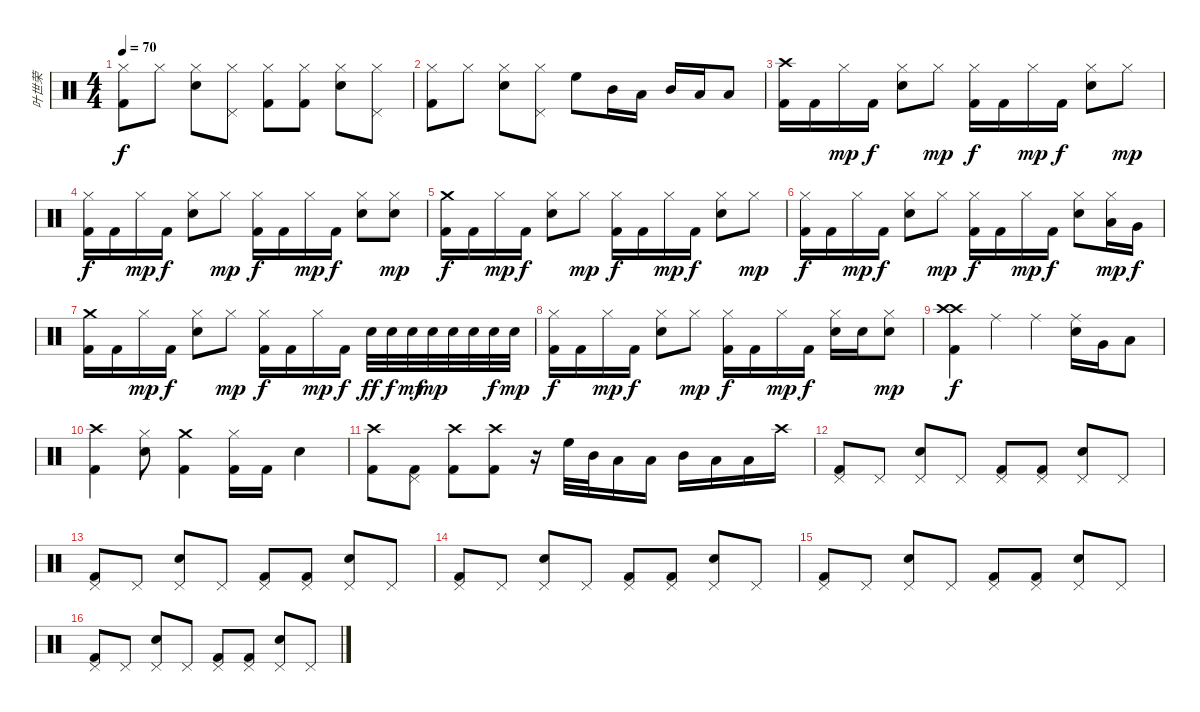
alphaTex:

\track ("叶世荣" "叶世荣") {instrument percussion}
\staff {score}
\articulation defaults
\ts (4 4)
\tempo 70
\clef neutral
\ks c
("Hi-Hat (closed)" "Kick (hit) 2").8{dy f} "Hi-Hat (closed)".8 ("Hi-Hat (closed)" "Snare (hit) 2").8 ("Hi-Hat (closed)" "Pedal Hi-Hat (hit)").8 ("Hi-Hat (closed)" "Kick (hit) 2").8 ("Hi-Hat (closed)" "Kick (hit) 2").8 ("Hi-Hat (closed)" "Snare (hit) 2").8 ("Hi-Hat (closed)" "Pedal Hi-Hat (hit)").8 |
("Hi-Hat (closed)" "Kick (hit) 2").8 "Hi-Hat (closed)".8 ("Hi-Hat (closed)" "Snare (hit) 2").8 ("Hi-Hat (closed)" "Pedal Hi-Hat (hit)").8 "High Floor Tom (hit)".8 "Mid Tom (hit)".16 "Low Tom (hit)".16 "Mid Tom (hit)".16 "Low Tom (hit)".16 "Low Floor Tom (hit)".8 |
("Crash high (hit)" "Kick (hit) 2").16 "Kick (hit) 2".16 "Hi-Hat (closed)".16{dy mp} "Kick (hit) 2".16{dy f} ("Hi-Hat (closed)" "Electric Snare (hit)").8 "Hi-Hat (closed)".8{dy mp} ("Hi-Hat (closed)" "Kick (hit) 2").16{dy f} "Kick (hit) 2".16 "Hi-Hat (closed)".16{dy mp} "Kick (hit) 2".16{dy f} ("Hi-Hat (closed)" "Electric Snare (hit)").8 "Hi-Hat (closed)".8{dy mp} |
("Hi-Hat (closed)" "Kick (hit) 2").16{dy f} "Kick (hit) 2".16 "Hi-Hat (closed)".16{dy mp} "Kick (hit) 2".16{dy f} ("Hi-Hat (closed)" "Electric Snare (hit)").8 "Hi-Hat (closed)".8{dy mp} ("Hi-Hat (closed)" "Kick (hit) 2").16{dy f} "Kick (hit) 2".16 "Hi-Hat (closed)".16{dy mp} "Kick (hit) 2".16{dy f} ("Hi-Hat (closed)" "Electric Snare (hit)").8 ("Hi-Hat (closed)" "Electric Snare (hit)").8{dy mp} |
("Crash medium (hit)" "Kick (hit) 2").16{dy f} "Kick (hit) 2".16 "Hi-Hat (closed)".16{dy mp} "Kick (hit) 2".16{dy f} ("Hi-Hat (closed)" "Electric Snare (hit)").8 "Hi-Hat (closed)".8{dy mp} ("Hi-Hat (closed)" "Kick (hit) 2").16{dy f} "Kick (hit) 2".16 "Hi-Hat (closed)".16{dy mp} "Kick (hit) 2".16{dy f} ("Hi-Hat (closed)" "Electric Snare (hit)").8 "Hi-Hat (closed)".8{dy mp} |
("Hi-Hat (closed)" "Kick (hit) 2").16{dy f} "Kick (hit) 2".16 "Hi-Hat (closed)".16{dy mp} "Kick (hit) 2".16{dy f} ("Hi-Hat (closed)" "Electric Snare (hit)").8 "Hi-Hat (closed)".8{dy mp} ("Hi-Hat (closed)" "Kick (hit) 2").16{dy f} "Kick (hit) 2".16 "Hi-Hat (closed)".16{dy mp} "Kick (hit) 2".16{dy f} ("Hi-Hat (closed)" "Electric Snare (hit)").8 ("Hi-Hat (closed)" "Low Tom (hit)").16{dy mp} "Very Low Tom (hit)".16{dy f} |
("Crash medium (hit)" "Kick (hit) 2").16 "Kick (hit) 2".16 "Hi-Hat (closed)".16{dy mp} "Kick (hit) 2".16{dy f} ("Hi-Hat (closed)" "Electric Snare (hit)").8 "Hi-Hat (closed)".8{dy mp} ("Hi-Hat (closed)" "Kick (hit) 2").16{dy f} "Kick (hit) 2".16 "Hi-Hat (closed)".16{dy mp} "Kick (hit) 2".16{dy f} "Electric Snare (hit)".32{dy ff} "Electric Snare (hit)".32{dy f} "Electric Snare (hit)".32{dy mf} "Electric Snare (hit)".32{dy mp} "Electric Snare (hit)".32 "Electric Snare (hit)".32 "Electric Snare (hit)".32{dy f} "Electric Snare (hit)".32{dy mp} |
("Hi-Hat (closed)" "Kick (hit) 2").16{dy f} "Kick (hit) 2".16 "Hi-Hat (closed)".16{dy mp} "Kick (hit) 2".16{dy f} ("Hi-Hat (closed)" "Electric Snare (hit)").8 "Hi-Hat (closed)".8{dy mp} ("Hi-Hat (closed)" "Kick (hit) 2").16{dy f} "Kick (hit) 2".16 "Hi-Hat (closed)".16{dy mp} "Kick (hit) 2".16{dy f} ("Hi-Hat (closed)" "Electric Snare (hit)").16 "Electric Snare (hit)".16 ("Hi-Hat (closed)" "Electric Snare (hit)").8{dy mp} |
("Crash high (hit)" "Crash high (hit)" "Kick (hit) 2").4{dy f} "Ride (middle)".4 "Ride (middle)".4 ("Ride (middle)" "Electric Snare (hit)").16 "Very Low Tom (hit)".16 "Low Floor Tom (hit)".8 |
("Crash high (hit)" "Kick (hit) 2").4 ("Hi-Hat (closed)" "Electric Snare (hit)").8 ("Crash medium (hit)" "Kick (hit) 2").4 ("Hi-Hat (closed)" "Kick (hit) 2").16 "Kick (hit) 2".16 "Electric Snare (hit)".4 |
("Crash high (hit)" "Kick (hit) 2").8 ("Pedal Hi-Hat (hit)" "Kick (hit) 2").8 ("Crash high (hit)" "Kick (hit) 2").8 ("Crash high (hit)" "Kick (hit) 2").8 r.16 "High Floor Tom (hit)".32 "Mid Tom (hit)".32 "Low Tom (hit)".16 "Low Tom (hit)".16 "Mid Tom (hit)".16 "Low Tom (hit)".16 "Low Floor Tom (hit)".16 "Crash high (hit)".16 |
("Pedal Hi-Hat (hit)" "Kick (hit) 2").8 "Pedal Hi-Hat (hit)".8 ("Pedal Hi-Hat (hit)" "Snare (hit) 2").8 "Pedal Hi-Hat (hit)".8 ("Pedal Hi-Hat (hit)" "Kick (hit) 2").8 ("Pedal Hi-Hat (hit)" "Kick (hit) 2").8 ("Pedal Hi-Hat (hit)" "Snare (hit) 2").8 "Pedal Hi-Hat (hit)".8 |
("Pedal Hi-Hat (hit)" "Kick (hit) 2").8 "Pedal Hi-Hat (hit)".8 ("Pedal Hi-Hat (hit)" "Snare (hit) 2").8 "Pedal Hi-Hat (hit)".8 ("Pedal Hi-Hat (hit)" "Kick (hit) 2").8 ("Pedal Hi-Hat (hit)" "Kick (hit) 2").8 ("Pedal Hi-Hat (hit)" "Snare (hit) 2").8 "Pedal Hi-Hat (hit)".8 |
("Pedal Hi-Hat (hit)" "Kick (hit) 2").8 "Pedal Hi-Hat (hit)".8 ("Pedal Hi-Hat (hit)" "Snare (hit) 2").8 "Pedal Hi-Hat (hit)".8 ("Pedal Hi-Hat (hit)" "Kick (hit) 2").8 ("Pedal Hi-Hat (hit)" "Kick (hit) 2").8 ("Pedal Hi-Hat (hit)" "Snare (hit) 2").8 "Pedal Hi-Hat (hit)".8 |
("Pedal Hi-Hat (hit)" "Kick (hit) 2").8 "Pedal Hi-Hat (hit)".8 ("Pedal Hi-Hat (hit)" "Snare (hit) 2").8 "Pedal Hi-Hat (hit)".8 ("Pedal Hi-Hat (hit)" "Kick (hit) 2").8 ("Pedal Hi-Hat (hit)" "Kick (hit) 2").8 ("Pedal Hi-Hat (hit)" "Snare (hit) 2").8 "Pedal Hi-Hat (hit)".8 |
("Pedal Hi-Hat (hit)" "Kick (hit) 2").8 "Pedal Hi-Hat (hit)".8 ("Pedal Hi-Hat (hit)" "Snare (hit) 2").8 "Pedal Hi-Hat (hit)".8 ("Pedal Hi-Hat (hit)" "Kick (hit) 2").8 ("Pedal Hi-Hat (hit)" "Kick (hit) 2").8 ("Pedal Hi-Hat (hit)" "Snare (hit) 2").8 "Pedal Hi-Hat (hit)".8
